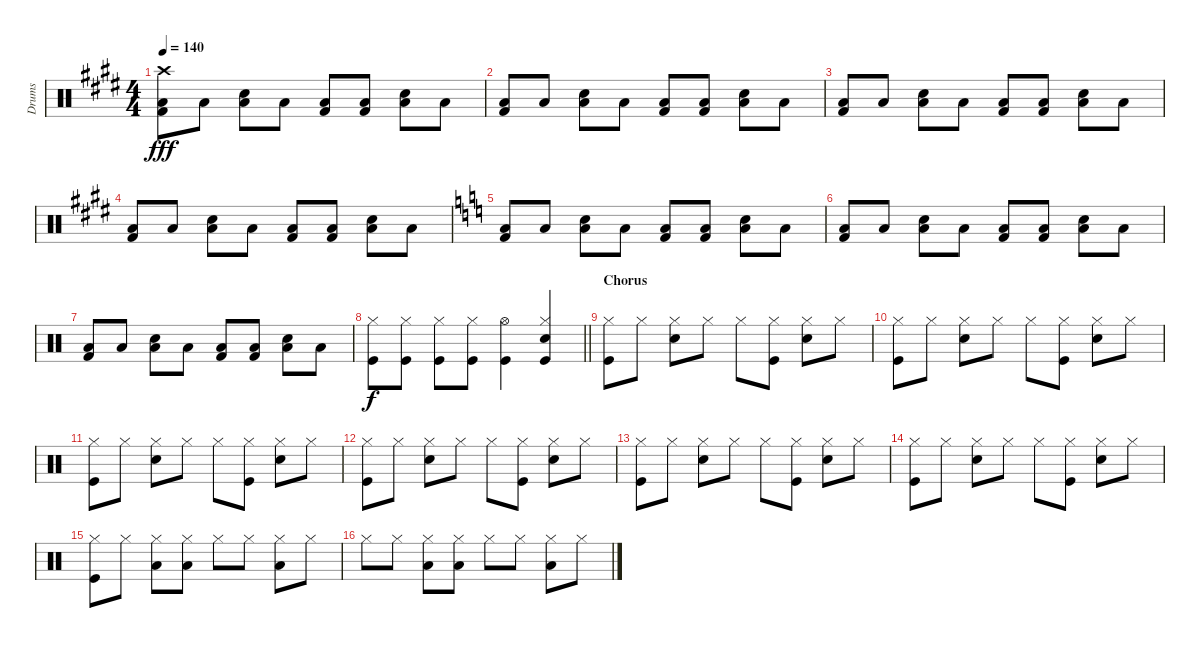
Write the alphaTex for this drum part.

\track ("Drums" "Drums") {instrument percussion}
\staff {score}
\articulation defaults
\ts (4 4)
\tempo 140
\clef neutral
\ks e
("Crash high (hit)" "Kick (hit) 2" "Low Floor Tom (hit)").8{dy fff} "Low Floor Tom (hit)".8 ("Snare (hit) 2" "Low Floor Tom (hit)").8 "Low Floor Tom (hit)".8 ("Kick (hit) 2" "Low Floor Tom (hit)").8 ("Kick (hit) 2" "Low Floor Tom (hit)").8 ("Snare (hit) 2" "Low Floor Tom (hit)").8 "Low Floor Tom (hit)".8 |
("Kick (hit) 2" "Low Floor Tom (hit)").8 "Low Floor Tom (hit)".8 ("Snare (hit) 2" "Low Floor Tom (hit)").8 "Low Floor Tom (hit)".8 ("Kick (hit) 2" "Low Floor Tom (hit)").8 ("Kick (hit) 2" "Low Floor Tom (hit)").8 ("Snare (hit) 2" "Low Floor Tom (hit)").8 "Low Floor Tom (hit)".8 |
("Kick (hit) 2" "Low Floor Tom (hit)").8 "Low Floor Tom (hit)".8 ("Snare (hit) 2" "Low Floor Tom (hit)").8 "Low Floor Tom (hit)".8 ("Kick (hit) 2" "Low Floor Tom (hit)").8 ("Kick (hit) 2" "Low Floor Tom (hit)").8 ("Snare (hit) 2" "Low Floor Tom (hit)").8 "Low Floor Tom (hit)".8 |
("Kick (hit) 2" "Low Floor Tom (hit)").8 "Low Floor Tom (hit)".8 ("Snare (hit) 2" "Low Floor Tom (hit)").8 "Low Floor Tom (hit)".8 ("Kick (hit) 2" "Low Floor Tom (hit)").8 ("Kick (hit) 2" "Low Floor Tom (hit)").8 ("Snare (hit) 2" "Low Floor Tom (hit)").8 "Low Floor Tom (hit)".8 |
\ks c
("Kick (hit) 2" "Low Floor Tom (hit)").8 "Low Floor Tom (hit)".8 ("Snare (hit) 2" "Low Floor Tom (hit)").8 "Low Floor Tom (hit)".8 ("Kick (hit) 2" "Low Floor Tom (hit)").8 ("Kick (hit) 2" "Low Floor Tom (hit)").8 ("Snare (hit) 2" "Low Floor Tom (hit)").8 "Low Floor Tom (hit)".8 |
("Kick (hit) 2" "Low Floor Tom (hit)").8 "Low Floor Tom (hit)".8 ("Snare (hit) 2" "Low Floor Tom (hit)").8 "Low Floor Tom (hit)".8 ("Kick (hit) 2" "Low Floor Tom (hit)").8 ("Kick (hit) 2" "Low Floor Tom (hit)").8 ("Snare (hit) 2" "Low Floor Tom (hit)").8 "Low Floor Tom (hit)".8 |
("Kick (hit) 2" "Low Floor Tom (hit)").8 "Low Floor Tom (hit)".8 ("Snare (hit) 2" "Low Floor Tom (hit)").8 "Low Floor Tom (hit)".8 ("Kick (hit) 2" "Low Floor Tom (hit)").8 ("Kick (hit) 2" "Low Floor Tom (hit)").8 ("Snare (hit) 2" "Low Floor Tom (hit)").8 "Low Floor Tom (hit)".8 |
\barLineRight lightlight
("Hi-Hat (closed)" "Kick (hit)").8{dy f} ("Hi-Hat (closed)" "Kick (hit)").8 ("Hi-Hat (closed)" "Kick (hit)").8 ("Hi-Hat (closed)" "Kick (hit)").8 ("Hi-Hat (open)" "Kick (hit)").4 ("Hi-Hat (closed)" "Snare (hit) 2" "Kick (hit)").4 |
\section ("" "Chorus")
("Hi-Hat (closed)" "Kick (hit)").8 "Hi-Hat (closed)".8 ("Hi-Hat (closed)" "Snare (hit) 2").8 "Hi-Hat (closed)".8 "Hi-Hat (closed)".8 ("Hi-Hat (closed)" "Kick (hit)").8 ("Hi-Hat (closed)" "Snare (hit) 2").8 "Hi-Hat (closed)".8 |
("Hi-Hat (closed)" "Kick (hit)").8 "Hi-Hat (closed)".8 ("Hi-Hat (closed)" "Snare (hit) 2").8 "Hi-Hat (closed)".8 "Hi-Hat (closed)".8 ("Hi-Hat (closed)" "Kick (hit)").8 ("Hi-Hat (closed)" "Snare (hit) 2").8 "Hi-Hat (closed)".8 |
("Hi-Hat (closed)" "Kick (hit)").8 "Hi-Hat (closed)".8 ("Hi-Hat (closed)" "Snare (hit) 2").8 "Hi-Hat (closed)".8 "Hi-Hat (closed)".8 ("Hi-Hat (closed)" "Kick (hit)").8 ("Hi-Hat (closed)" "Snare (hit) 2").8 "Hi-Hat (closed)".8 |
("Hi-Hat (closed)" "Kick (hit)").8 "Hi-Hat (closed)".8 ("Hi-Hat (closed)" "Snare (hit) 2").8 "Hi-Hat (closed)".8 "Hi-Hat (closed)".8 ("Hi-Hat (closed)" "Kick (hit)").8 ("Hi-Hat (closed)" "Snare (hit) 2").8 "Hi-Hat (closed)".8 |
("Hi-Hat (closed)" "Kick (hit)").8 "Hi-Hat (closed)".8 ("Hi-Hat (closed)" "Snare (hit) 2").8 "Hi-Hat (closed)".8 "Hi-Hat (closed)".8 ("Hi-Hat (closed)" "Kick (hit)").8 ("Hi-Hat (closed)" "Snare (hit) 2").8 "Hi-Hat (closed)".8 |
("Hi-Hat (closed)" "Kick (hit)").8 "Hi-Hat (closed)".8 ("Hi-Hat (closed)" "Snare (hit) 2").8 "Hi-Hat (closed)".8 "Hi-Hat (closed)".8 ("Hi-Hat (closed)" "Kick (hit)").8 ("Hi-Hat (closed)" "Snare (hit) 2").8 "Hi-Hat (closed)".8 |
("Hi-Hat (closed)" "Kick (hit)").8 "Hi-Hat (closed)".8 ("Hi-Hat (closed)" "Low Tom (hit)").8 ("Hi-Hat (closed)" "Low Tom (hit)").8 "Hi-Hat (closed)".8 "Hi-Hat (closed)".8 ("Hi-Hat (closed)" "Low Tom (hit)").8 "Hi-Hat (closed)".8 |
"Hi-Hat (closed)".8 "Hi-Hat (closed)".8 ("Hi-Hat (closed)" "Low Tom (hit)").8 ("Hi-Hat (closed)" "Low Tom (hit)").8 "Hi-Hat (closed)".8 "Hi-Hat (closed)".8 ("Hi-Hat (closed)" "Low Tom (hit)").8 "Hi-Hat (closed)".8
